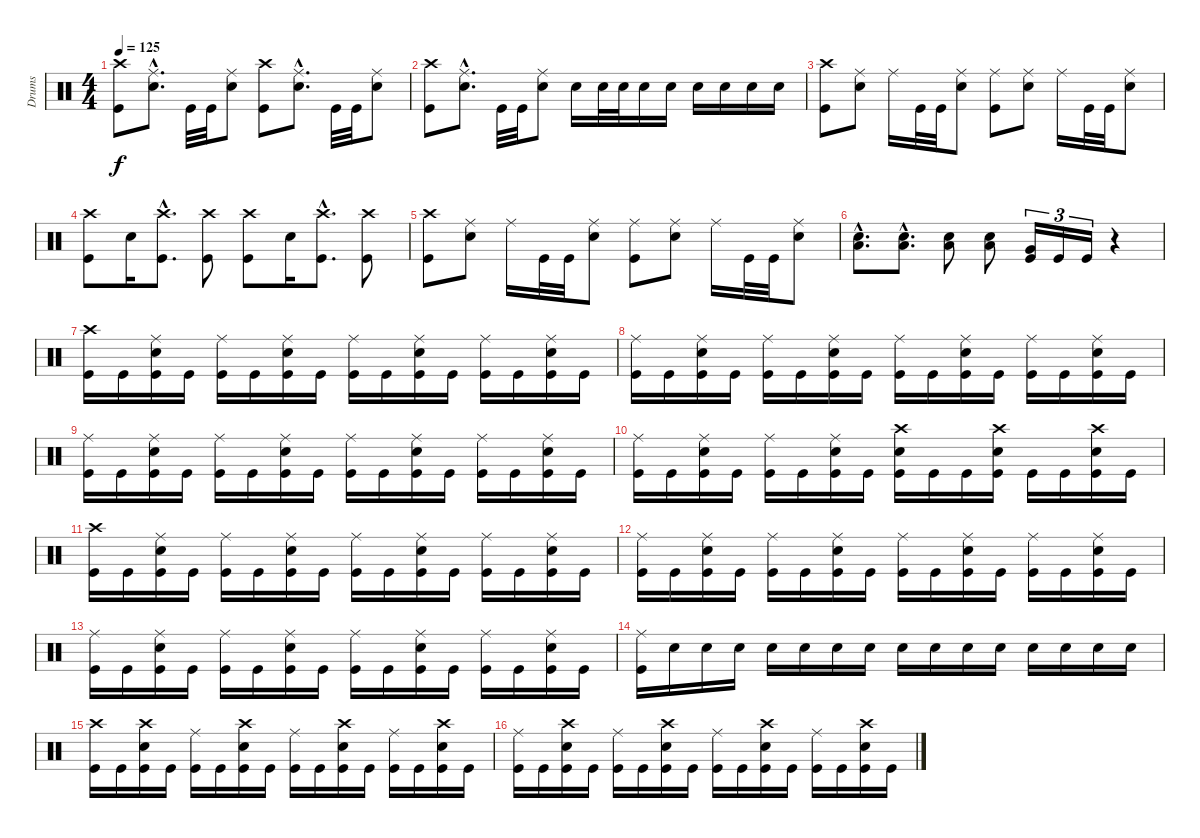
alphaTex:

\track ("Drums" "Drums") {instrument percussion}
\staff {score}
\articulation defaults
\ts (4 4)
\tempo 125
\clef neutral
\ks c
("Crash high (hit)" "Kick (hit)").8{dy f} ("Ride (middle)"{hac} "Snare (hit) 2"{hac}).8{d} "Kick (hit)".32 "Kick (hit)".32 ("Ride (middle)" "Snare (hit) 2").8 ("Crash high (hit)" "Kick (hit)").8 ("Ride (middle)"{hac} "Snare (hit) 2"{hac}).8{d} "Kick (hit)".32 "Kick (hit)".32 ("Ride (middle)" "Snare (hit) 2").8 |
("Crash high (hit)" "Kick (hit)").8 ("Ride (middle)"{hac} "Snare (hit) 2"{hac}).8{d} "Kick (hit)".32 "Kick (hit)".32 ("Ride (middle)" "Snare (hit) 2").8 "Snare (hit) 2".16 "Snare (hit) 2".32 "Snare (hit) 2".32 "Snare (hit) 2".16 "Snare (hit) 2".16 "Snare (hit) 2".16 "Snare (hit) 2".16 "Snare (hit) 2".16 "Snare (hit) 2".16 |
("Crash high (hit)" "Kick (hit)").8 ("Ride (middle)" "Snare (hit) 2").8 "Ride (middle)".16 "Kick (hit)".32 "Kick (hit)".32 ("Ride (middle)" "Snare (hit) 2").8 ("Ride (middle)" "Kick (hit)").8 ("Ride (middle)" "Snare (hit) 2").8 "Ride (middle)".16 "Kick (hit)".32 "Kick (hit)".32 ("Ride (middle)" "Snare (hit) 2").8 |
("Crash high (hit)" "Kick (hit)").8 "Snare (hit) 2".16 ("Crash high (hit)"{hac} "Kick (hit)"{hac}).8{d} ("Crash high (hit)" "Kick (hit)").8 ("Crash high (hit)" "Kick (hit)").8 "Snare (hit) 2".16 ("Crash high (hit)"{hac} "Kick (hit)"{hac}).8{d} ("Crash high (hit)" "Kick (hit)").8 |
("Crash high (hit)" "Kick (hit)").8 ("Ride (middle)" "Snare (hit) 2").8 "Ride (middle)".16 "Kick (hit)".32 "Kick (hit)".32 ("Ride (middle)" "Snare (hit) 2").8 ("Ride (middle)" "Kick (hit)").8 ("Ride (middle)" "Snare (hit) 2").8 "Ride (middle)".16 "Kick (hit)".32 "Kick (hit)".32 ("Ride (middle)" "Snare (hit) 2").8 |
("Snare (hit) 2"{hac} "Low Tom (hit)"{hac}).8{d} ("Snare (hit) 2"{hac} "Low Tom (hit)"{hac}).8{d} ("Snare (hit) 2" "Low Tom (hit)").8 ("Snare (hit) 2" "Low Tom (hit)").8 ("Kick (hit)" "Very Low Tom (hit)").16{tu (3 2)} "Kick (hit)".16{tu (3 2)} "Kick (hit)".16{tu (3 2)} r.4 |
("Crash high (hit)" "Kick (hit)").16 "Kick (hit)".16 ("Ride (middle)" "Snare (hit) 2" "Kick (hit)").16 "Kick (hit)".16 ("Ride (middle)" "Kick (hit)").16 "Kick (hit)".16 ("Ride (middle)" "Snare (hit) 2" "Kick (hit)").16 "Kick (hit)".16 ("Ride (middle)" "Kick (hit)").16 "Kick (hit)".16 ("Ride (middle)" "Snare (hit) 2" "Kick (hit)").16 "Kick (hit)".16 ("Ride (middle)" "Kick (hit)").16 "Kick (hit)".16 ("Ride (middle)" "Snare (hit) 2" "Kick (hit)").16 "Kick (hit)".16 |
("Ride (middle)" "Kick (hit)").16 "Kick (hit)".16 ("Ride (middle)" "Snare (hit) 2" "Kick (hit)").16 "Kick (hit)".16 ("Ride (middle)" "Kick (hit)").16 "Kick (hit)".16 ("Ride (middle)" "Snare (hit) 2" "Kick (hit)").16 "Kick (hit)".16 ("Ride (middle)" "Kick (hit)").16 "Kick (hit)".16 ("Ride (middle)" "Snare (hit) 2" "Kick (hit)").16 "Kick (hit)".16 ("Ride (middle)" "Kick (hit)").16 "Kick (hit)".16 ("Ride (middle)" "Snare (hit) 2" "Kick (hit)").16 "Kick (hit)".16 |
("Ride (middle)" "Kick (hit)").16 "Kick (hit)".16 ("Ride (middle)" "Snare (hit) 2" "Kick (hit)").16 "Kick (hit)".16 ("Ride (middle)" "Kick (hit)").16 "Kick (hit)".16 ("Ride (middle)" "Snare (hit) 2" "Kick (hit)").16 "Kick (hit)".16 ("Ride (middle)" "Kick (hit)").16 "Kick (hit)".16 ("Ride (middle)" "Snare (hit) 2" "Kick (hit)").16 "Kick (hit)".16 ("Ride (middle)" "Kick (hit)").16 "Kick (hit)".16 ("Ride (middle)" "Snare (hit) 2" "Kick (hit)").16 "Kick (hit)".16 |
("Ride (middle)" "Kick (hit)").16 "Kick (hit)".16 ("Ride (middle)" "Snare (hit) 2" "Kick (hit)").16 "Kick (hit)".16 ("Ride (middle)" "Kick (hit)").16 "Kick (hit)".16 ("Ride (middle)" "Snare (hit) 2" "Kick (hit)").16 "Kick (hit)".16 ("Crash high (hit)" "Snare (hit) 2" "Kick (hit)").16 "Kick (hit)".16 "Kick (hit)".16 ("Crash high (hit)" "Snare (hit) 2" "Kick (hit)").16 "Kick (hit)".16 "Kick (hit)".16 ("Crash high (hit)" "Snare (hit) 2" "Kick (hit)").16 "Kick (hit)".16 |
("Crash high (hit)" "Kick (hit)").16 "Kick (hit)".16 ("Ride (middle)" "Snare (hit) 2" "Kick (hit)").16 "Kick (hit)".16 ("Ride (middle)" "Kick (hit)").16 "Kick (hit)".16 ("Ride (middle)" "Snare (hit) 2" "Kick (hit)").16 "Kick (hit)".16 ("Ride (middle)" "Kick (hit)").16 "Kick (hit)".16 ("Ride (middle)" "Snare (hit) 2" "Kick (hit)").16 "Kick (hit)".16 ("Ride (middle)" "Kick (hit)").16 "Kick (hit)".16 ("Ride (middle)" "Snare (hit) 2" "Kick (hit)").16 "Kick (hit)".16 |
("Ride (middle)" "Kick (hit)").16 "Kick (hit)".16 ("Ride (middle)" "Snare (hit) 2" "Kick (hit)").16 "Kick (hit)".16 ("Ride (middle)" "Kick (hit)").16 "Kick (hit)".16 ("Ride (middle)" "Snare (hit) 2" "Kick (hit)").16 "Kick (hit)".16 ("Ride (middle)" "Kick (hit)").16 "Kick (hit)".16 ("Ride (middle)" "Snare (hit) 2" "Kick (hit)").16 "Kick (hit)".16 ("Ride (middle)" "Kick (hit)").16 "Kick (hit)".16 ("Ride (middle)" "Snare (hit) 2" "Kick (hit)").16 "Kick (hit)".16 |
("Ride (middle)" "Kick (hit)").16 "Kick (hit)".16 ("Ride (middle)" "Snare (hit) 2" "Kick (hit)").16 "Kick (hit)".16 ("Ride (middle)" "Kick (hit)").16 "Kick (hit)".16 ("Ride (middle)" "Snare (hit) 2" "Kick (hit)").16 "Kick (hit)".16 ("Ride (middle)" "Kick (hit)").16 "Kick (hit)".16 ("Ride (middle)" "Snare (hit) 2" "Kick (hit)").16 "Kick (hit)".16 ("Ride (middle)" "Kick (hit)").16 "Kick (hit)".16 ("Ride (middle)" "Snare (hit) 2" "Kick (hit)").16 "Kick (hit)".16 |
("Ride (middle)" "Kick (hit)").16 "Snare (hit) 2".16 "Snare (hit) 2".16 "Snare (hit) 2".16 "Snare (hit) 2".16 "Snare (hit) 2".16 "Snare (hit) 2".16 "Snare (hit) 2".16 "Snare (hit) 2".16 "Snare (hit) 2".16 "Snare (hit) 2".16 "Snare (hit) 2".16 "Snare (hit) 2".16 "Snare (hit) 2".16 "Snare (hit) 2".16 "Snare (hit) 2".16 |
("Crash high (hit)" "Kick (hit)").16 "Kick (hit)".16 ("Crash high (hit)" "Snare (hit) 2" "Kick (hit)").16 "Kick (hit)".16 ("Ride (middle)" "Kick (hit)").16 "Kick (hit)".16 ("Crash high (hit)" "Snare (hit) 2" "Kick (hit)").16 "Kick (hit)".16 ("Ride (middle)" "Kick (hit)").16 "Kick (hit)".16 ("Crash high (hit)" "Snare (hit) 2" "Kick (hit)").16 "Kick (hit)".16 ("Ride (middle)" "Kick (hit)").16 "Kick (hit)".16 ("Crash high (hit)" "Snare (hit) 2" "Kick (hit)").16 "Kick (hit)".16 |
("Ride (middle)" "Kick (hit)").16 "Kick (hit)".16 ("Crash high (hit)" "Snare (hit) 2" "Kick (hit)").16 "Kick (hit)".16 ("Ride (middle)" "Kick (hit)").16 "Kick (hit)".16 ("Crash high (hit)" "Snare (hit) 2" "Kick (hit)").16 "Kick (hit)".16 ("Ride (middle)" "Kick (hit)").16 "Kick (hit)".16 ("Crash high (hit)" "Snare (hit) 2" "Kick (hit)").16 "Kick (hit)".16 ("Ride (middle)" "Kick (hit)").16 "Kick (hit)".16 ("Crash high (hit)" "Snare (hit) 2" "Kick (hit)").16 "Kick (hit)".16
